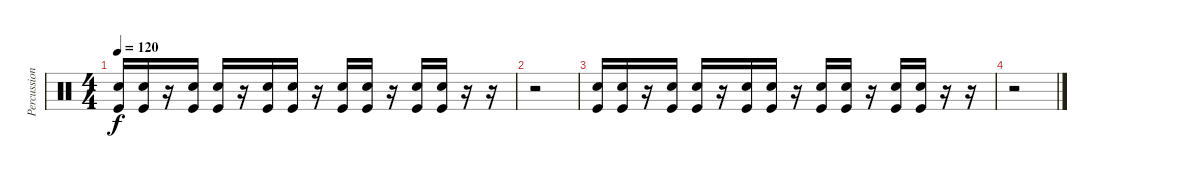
\track ("Percussion" "Percussion") {instrument percussion}
\staff {score}
\articulation defaults
\ts (4 4)
\tempo 120
\clef neutral
\ks c
("Snare (hit) 2" "Kick (hit)").16{dy f} ("Snare (hit) 2" "Kick (hit)").16 r.16 ("Snare (hit) 2" "Kick (hit)").16 ("Snare (hit) 2" "Kick (hit)").16 r.16 ("Snare (hit) 2" "Kick (hit)").16 ("Snare (hit) 2" "Kick (hit)").16 r.16 ("Snare (hit) 2" "Kick (hit)").16 ("Snare (hit) 2" "Kick (hit)").16 r.16 ("Snare (hit) 2" "Kick (hit)").16 ("Snare (hit) 2" "Kick (hit)").16 r.16 r.16 |
r.2 |
("Snare (hit) 2" "Kick (hit)").16 ("Snare (hit) 2" "Kick (hit)").16 r.16 ("Snare (hit) 2" "Kick (hit)").16 ("Snare (hit) 2" "Kick (hit)").16 r.16 ("Snare (hit) 2" "Kick (hit)").16 ("Snare (hit) 2" "Kick (hit)").16 r.16 ("Snare (hit) 2" "Kick (hit)").16 ("Snare (hit) 2" "Kick (hit)").16 r.16 ("Snare (hit) 2" "Kick (hit)").16 ("Snare (hit) 2" "Kick (hit)").16 r.16 r.16 |
r.2
